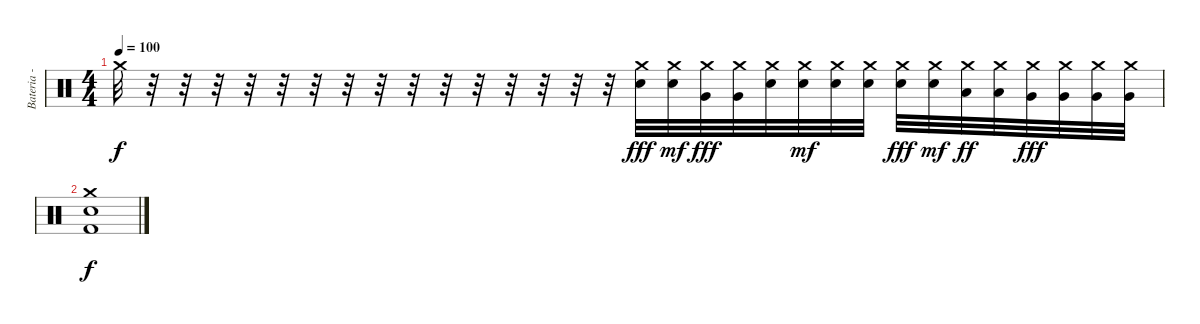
\track ("Bateria - Drums - Searching after F Mike" "Bateria - ") {instrument percussion}
\staff {score}
\articulation defaults
\ts (4 4)
\tempo 100
\clef neutral
\ks c "Crash medium (hit)".32{dy f}
r.32 r.32 r.32 r.32 r.32 r.32 r.32 r.32 r.32 r.32 r.32 r.32 r.32 r.32 r.32 ("Crash medium (hit)" "Electric Snare (hit)").32{dy fff} ("Crash medium (hit)" "Electric Snare (hit)").32{dy mf} ("Crash medium (hit)" "Very Low Tom (hit)").32{dy fff} ("Crash medium (hit)" "Very Low Tom (hit)").32 ("Crash medium (hit)" "Electric Snare (hit)").32 ("Crash medium (hit)" "Electric Snare (hit)").32{dy mf} ("Crash medium (hit)" "Electric Snare (hit)").32 ("Crash medium (hit)" "Electric Snare (hit)").32 ("Crash medium (hit)" "Electric Snare (hit)").32{dy fff} ("Crash medium (hit)" "Electric Snare (hit)").32{dy mf} ("Crash medium (hit)" "Low Tom (hit)").32{dy ff} ("Crash medium (hit)" "Low Tom (hit)").32 ("Crash medium (hit)" "Very Low Tom (hit)").32{dy fff} ("Crash medium (hit)" "Very Low Tom (hit)").32 ("Crash medium (hit)" "Very Low Tom (hit)").32 ("Crash medium (hit)" "Very Low Tom (hit)").32 |
("Crash medium (hit)" "Kick (hit) 2" "Snare (hit) 2").1{dy f}
